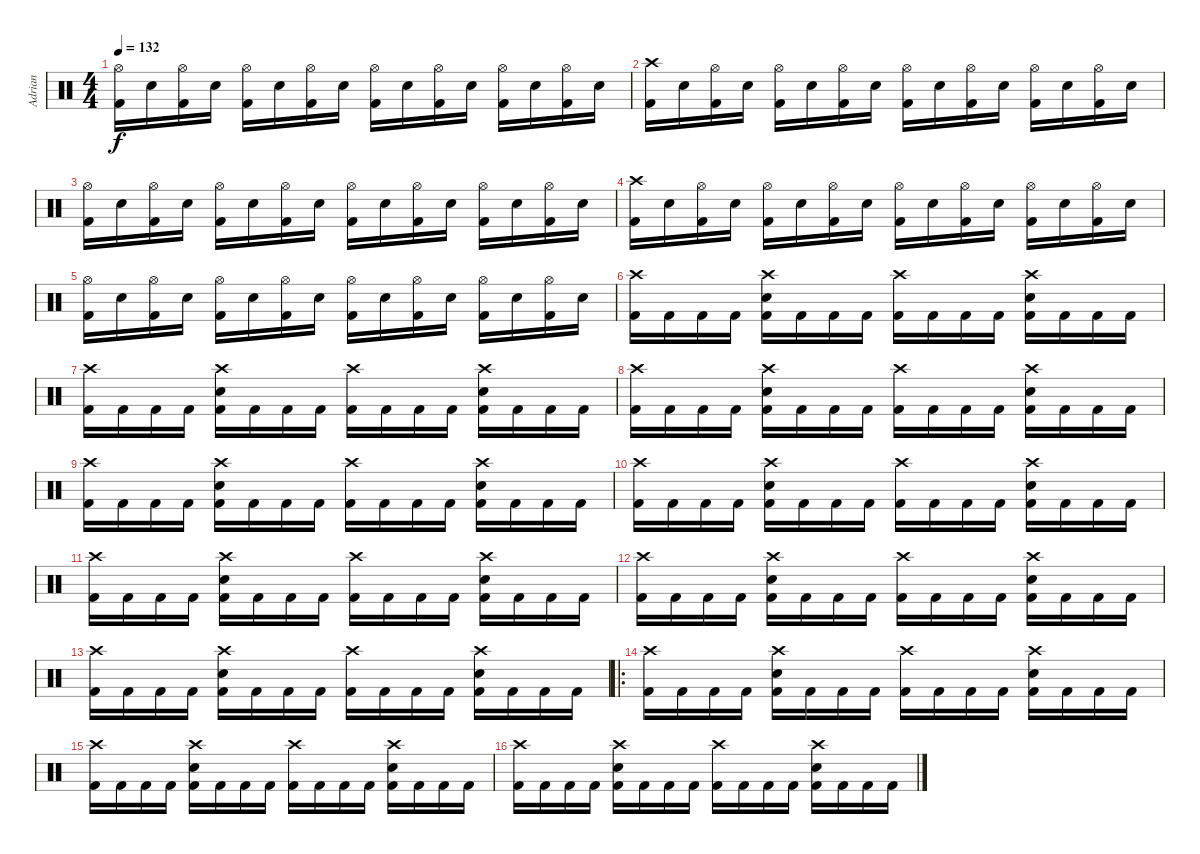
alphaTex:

\track ("Adrian" "Adrian") {instrument percussion}
\staff {score}
\articulation defaults
\ts (4 4)
\tempo 132
\clef neutral
\ks c
("Kick (hit) 2" "Hi-Hat (open)").16{dy f} "Snare (hit) 2".16 ("Kick (hit) 2" "Hi-Hat (open)").16 "Snare (hit) 2".16 ("Kick (hit) 2" "Hi-Hat (open)").16 "Snare (hit) 2".16 ("Kick (hit) 2" "Hi-Hat (open)").16 "Snare (hit) 2".16 ("Kick (hit) 2" "Hi-Hat (open)").16 "Snare (hit) 2".16 ("Kick (hit) 2" "Hi-Hat (open)").16 "Snare (hit) 2".16 ("Kick (hit) 2" "Hi-Hat (open)").16 "Snare (hit) 2".16 ("Kick (hit) 2" "Hi-Hat (open)").16 "Snare (hit) 2".16 |
("Kick (hit) 2" "Crash high (hit)").16 "Snare (hit) 2".16 ("Kick (hit) 2" "Hi-Hat (open)").16 "Snare (hit) 2".16 ("Kick (hit) 2" "Hi-Hat (open)").16 "Snare (hit) 2".16 ("Kick (hit) 2" "Hi-Hat (open)").16 "Snare (hit) 2".16 ("Kick (hit) 2" "Hi-Hat (open)").16 "Snare (hit) 2".16 ("Kick (hit) 2" "Hi-Hat (open)").16 "Snare (hit) 2".16 ("Kick (hit) 2" "Hi-Hat (open)").16 "Snare (hit) 2".16 ("Kick (hit) 2" "Hi-Hat (open)").16 "Snare (hit) 2".16 |
("Kick (hit) 2" "Hi-Hat (open)").16 "Snare (hit) 2".16 ("Kick (hit) 2" "Hi-Hat (open)").16 "Snare (hit) 2".16 ("Kick (hit) 2" "Hi-Hat (open)").16 "Snare (hit) 2".16 ("Kick (hit) 2" "Hi-Hat (open)").16 "Snare (hit) 2".16 ("Kick (hit) 2" "Hi-Hat (open)").16 "Snare (hit) 2".16 ("Kick (hit) 2" "Hi-Hat (open)").16 "Snare (hit) 2".16 ("Kick (hit) 2" "Hi-Hat (open)").16 "Snare (hit) 2".16 ("Kick (hit) 2" "Hi-Hat (open)").16 "Snare (hit) 2".16 |
("Kick (hit) 2" "Crash high (hit)").16 "Snare (hit) 2".16 ("Kick (hit) 2" "Hi-Hat (open)").16 "Snare (hit) 2".16 ("Kick (hit) 2" "Hi-Hat (open)").16 "Snare (hit) 2".16 ("Kick (hit) 2" "Hi-Hat (open)").16 "Snare (hit) 2".16 ("Kick (hit) 2" "Hi-Hat (open)").16 "Snare (hit) 2".16 ("Kick (hit) 2" "Hi-Hat (open)").16 "Snare (hit) 2".16 ("Kick (hit) 2" "Hi-Hat (open)").16 "Snare (hit) 2".16 ("Kick (hit) 2" "Hi-Hat (open)").16 "Snare (hit) 2".16 |
("Kick (hit) 2" "Hi-Hat (open)").16 "Snare (hit) 2".16 ("Kick (hit) 2" "Hi-Hat (open)").16 "Snare (hit) 2".16 ("Kick (hit) 2" "Hi-Hat (open)").16 "Snare (hit) 2".16 ("Kick (hit) 2" "Hi-Hat (open)").16 "Snare (hit) 2".16 ("Kick (hit) 2" "Hi-Hat (open)").16 "Snare (hit) 2".16 ("Kick (hit) 2" "Hi-Hat (open)").16 "Snare (hit) 2".16 ("Kick (hit) 2" "Hi-Hat (open)").16 "Snare (hit) 2".16 ("Kick (hit) 2" "Hi-Hat (open)").16 "Snare (hit) 2".16 |
("Kick (hit) 2" "Crash high (hit)").16 "Kick (hit) 2".16 "Kick (hit) 2".16 "Kick (hit) 2".16 ("Kick (hit) 2" "Snare (hit) 2" "Crash high (hit)").16 "Kick (hit) 2".16 "Kick (hit) 2".16 "Kick (hit) 2".16 ("Kick (hit) 2" "Crash high (hit)").16 "Kick (hit) 2".16 "Kick (hit) 2".16 "Kick (hit) 2".16 ("Kick (hit) 2" "Snare (hit) 2" "Crash high (hit)").16 "Kick (hit) 2".16 "Kick (hit) 2".16 "Kick (hit) 2".16 |
("Kick (hit) 2" "Crash high (hit)").16 "Kick (hit) 2".16 "Kick (hit) 2".16 "Kick (hit) 2".16 ("Kick (hit) 2" "Snare (hit) 2" "Crash high (hit)").16 "Kick (hit) 2".16 "Kick (hit) 2".16 "Kick (hit) 2".16 ("Kick (hit) 2" "Crash high (hit)").16 "Kick (hit) 2".16 "Kick (hit) 2".16 "Kick (hit) 2".16 ("Kick (hit) 2" "Snare (hit) 2" "Crash high (hit)").16 "Kick (hit) 2".16 "Kick (hit) 2".16 "Kick (hit) 2".16 |
("Kick (hit) 2" "Crash high (hit)").16 "Kick (hit) 2".16 "Kick (hit) 2".16 "Kick (hit) 2".16 ("Kick (hit) 2" "Snare (hit) 2" "Crash high (hit)").16 "Kick (hit) 2".16 "Kick (hit) 2".16 "Kick (hit) 2".16 ("Kick (hit) 2" "Crash high (hit)").16 "Kick (hit) 2".16 "Kick (hit) 2".16 "Kick (hit) 2".16 ("Kick (hit) 2" "Snare (hit) 2" "Crash high (hit)").16 "Kick (hit) 2".16 "Kick (hit) 2".16 "Kick (hit) 2".16 |
("Kick (hit) 2" "Crash high (hit)").16 "Kick (hit) 2".16 "Kick (hit) 2".16 "Kick (hit) 2".16 ("Kick (hit) 2" "Snare (hit) 2" "Crash high (hit)").16 "Kick (hit) 2".16 "Kick (hit) 2".16 "Kick (hit) 2".16 ("Kick (hit) 2" "Crash high (hit)").16 "Kick (hit) 2".16 "Kick (hit) 2".16 "Kick (hit) 2".16 ("Kick (hit) 2" "Snare (hit) 2" "Crash high (hit)").16 "Kick (hit) 2".16 "Kick (hit) 2".16 "Kick (hit) 2".16 |
("Kick (hit) 2" "Crash high (hit)").16 "Kick (hit) 2".16 "Kick (hit) 2".16 "Kick (hit) 2".16 ("Kick (hit) 2" "Snare (hit) 2" "Crash high (hit)").16 "Kick (hit) 2".16 "Kick (hit) 2".16 "Kick (hit) 2".16 ("Kick (hit) 2" "Crash high (hit)").16 "Kick (hit) 2".16 "Kick (hit) 2".16 "Kick (hit) 2".16 ("Kick (hit) 2" "Snare (hit) 2" "Crash high (hit)").16 "Kick (hit) 2".16 "Kick (hit) 2".16 "Kick (hit) 2".16 |
("Kick (hit) 2" "Crash high (hit)").16 "Kick (hit) 2".16 "Kick (hit) 2".16 "Kick (hit) 2".16 ("Kick (hit) 2" "Snare (hit) 2" "Crash high (hit)").16 "Kick (hit) 2".16 "Kick (hit) 2".16 "Kick (hit) 2".16 ("Kick (hit) 2" "Crash high (hit)").16 "Kick (hit) 2".16 "Kick (hit) 2".16 "Kick (hit) 2".16 ("Kick (hit) 2" "Snare (hit) 2" "Crash high (hit)").16 "Kick (hit) 2".16 "Kick (hit) 2".16 "Kick (hit) 2".16 |
("Kick (hit) 2" "Crash high (hit)").16 "Kick (hit) 2".16 "Kick (hit) 2".16 "Kick (hit) 2".16 ("Kick (hit) 2" "Snare (hit) 2" "Crash high (hit)").16 "Kick (hit) 2".16 "Kick (hit) 2".16 "Kick (hit) 2".16 ("Kick (hit) 2" "Crash high (hit)").16 "Kick (hit) 2".16 "Kick (hit) 2".16 "Kick (hit) 2".16 ("Kick (hit) 2" "Snare (hit) 2" "Crash high (hit)").16 "Kick (hit) 2".16 "Kick (hit) 2".16 "Kick (hit) 2".16 |
("Kick (hit) 2" "Crash high (hit)").16 "Kick (hit) 2".16 "Kick (hit) 2".16 "Kick (hit) 2".16 ("Kick (hit) 2" "Snare (hit) 2" "Crash high (hit)").16 "Kick (hit) 2".16 "Kick (hit) 2".16 "Kick (hit) 2".16 ("Kick (hit) 2" "Crash high (hit)").16 "Kick (hit) 2".16 "Kick (hit) 2".16 "Kick (hit) 2".16 ("Kick (hit) 2" "Snare (hit) 2" "Crash high (hit)").16 "Kick (hit) 2".16 "Kick (hit) 2".16 "Kick (hit) 2".16 |
\ro
("Kick (hit) 2" "Crash high (hit)").16 "Kick (hit) 2".16 "Kick (hit) 2".16 "Kick (hit) 2".16 ("Kick (hit) 2" "Snare (hit) 2" "Crash high (hit)").16 "Kick (hit) 2".16 "Kick (hit) 2".16 "Kick (hit) 2".16 ("Kick (hit) 2" "Crash high (hit)").16 "Kick (hit) 2".16 "Kick (hit) 2".16 "Kick (hit) 2".16 ("Kick (hit) 2" "Snare (hit) 2" "Crash high (hit)").16 "Kick (hit) 2".16 "Kick (hit) 2".16 "Kick (hit) 2".16 |
("Kick (hit) 2" "Crash high (hit)").16 "Kick (hit) 2".16 "Kick (hit) 2".16 "Kick (hit) 2".16 ("Kick (hit) 2" "Snare (hit) 2" "Crash high (hit)").16 "Kick (hit) 2".16 "Kick (hit) 2".16 "Kick (hit) 2".16 ("Kick (hit) 2" "Crash high (hit)").16 "Kick (hit) 2".16 "Kick (hit) 2".16 "Kick (hit) 2".16 ("Kick (hit) 2" "Snare (hit) 2" "Crash high (hit)").16 "Kick (hit) 2".16 "Kick (hit) 2".16 "Kick (hit) 2".16 |
("Kick (hit) 2" "Crash high (hit)").16 "Kick (hit) 2".16 "Kick (hit) 2".16 "Kick (hit) 2".16 ("Kick (hit) 2" "Snare (hit) 2" "Crash high (hit)").16 "Kick (hit) 2".16 "Kick (hit) 2".16 "Kick (hit) 2".16 ("Kick (hit) 2" "Crash high (hit)").16 "Kick (hit) 2".16 "Kick (hit) 2".16 "Kick (hit) 2".16 ("Kick (hit) 2" "Snare (hit) 2" "Crash high (hit)").16 "Kick (hit) 2".16 "Kick (hit) 2".16 "Kick (hit) 2".16
